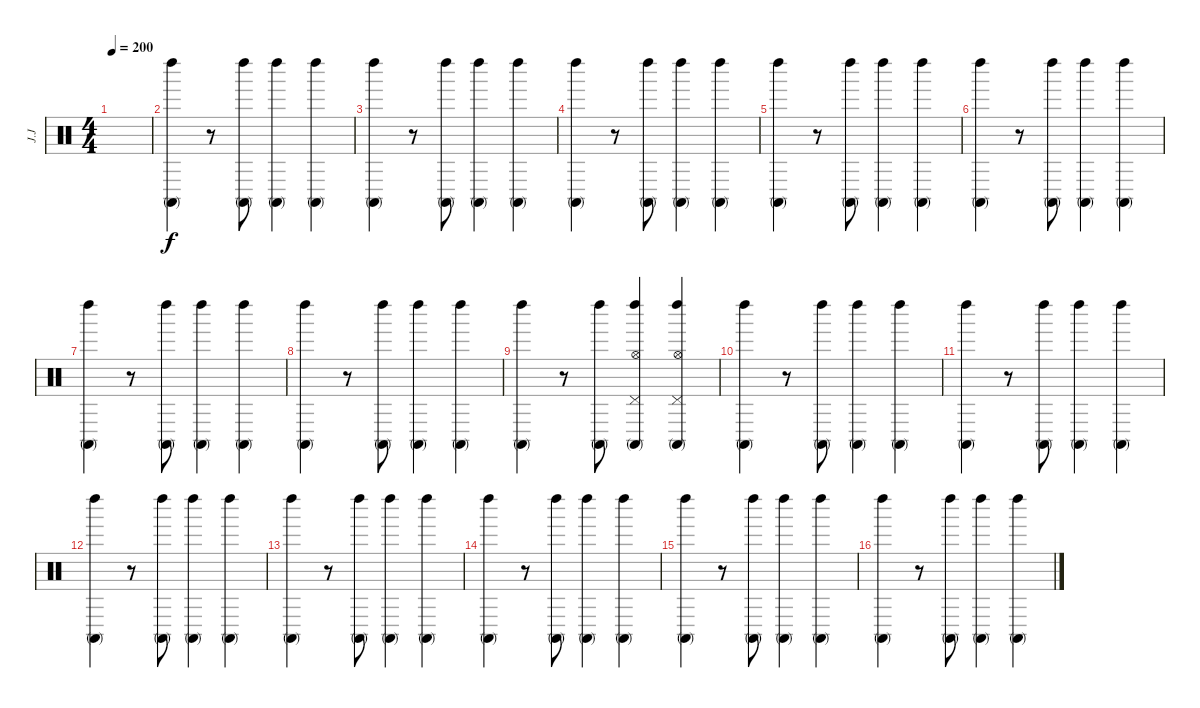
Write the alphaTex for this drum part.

\track ("J.J" "J.J") {instrument percussion}
\staff {score}
\articulation defaults
\ts (4 4)
\tempo 200
\clef neutral
\ks c
|
("Conga high (mute)" "Left Maraca (hit)").4 r.8 ("Conga high (mute)" "Left Maraca (hit)").8 ("Conga high (mute)" "Left Maraca (hit)").4 ("Conga high (mute)" "Left Maraca (hit)").4 |
("Conga high (mute)" "Left Maraca (hit)").4 r.8 ("Conga high (mute)" "Left Maraca (hit)").8 ("Conga high (mute)" "Left Maraca (hit)").4 ("Conga high (mute)" "Left Maraca (hit)").4 |
("Conga high (mute)" "Left Maraca (hit)").4 r.8 ("Conga high (mute)" "Left Maraca (hit)").8 ("Conga high (mute)" "Left Maraca (hit)").4 ("Conga high (mute)" "Left Maraca (hit)").4 |
("Conga high (mute)" "Left Maraca (hit)").4 r.8 ("Conga high (mute)" "Left Maraca (hit)").8 ("Conga high (mute)" "Left Maraca (hit)").4 ("Conga high (mute)" "Left Maraca (hit)").4 |
("Conga high (mute)" "Left Maraca (hit)").4 r.8 ("Conga high (mute)" "Left Maraca (hit)").8 ("Conga high (mute)" "Left Maraca (hit)").4 ("Conga high (mute)" "Left Maraca (hit)").4 |
("Conga high (mute)" "Left Maraca (hit)").4 r.8 ("Conga high (mute)" "Left Maraca (hit)").8 ("Conga high (mute)" "Left Maraca (hit)").4 ("Conga high (mute)" "Left Maraca (hit)").4 |
("Conga high (mute)" "Left Maraca (hit)").4 r.8 ("Conga high (mute)" "Left Maraca (hit)").8 ("Conga high (mute)" "Left Maraca (hit)").4 ("Conga high (mute)" "Left Maraca (hit)").4 |
("Conga high (mute)" "Left Maraca (hit)").4 r.8 ("Conga high (mute)" "Left Maraca (hit)").8 ("Conga high (mute)" "Left Maraca (hit)" "Hi-Hat (open)" "Pedal Hi-Hat (hit)").4 ("Conga high (mute)" "Left Maraca (hit)" "Hi-Hat (open)" "Pedal Hi-Hat (hit)").4 |
("Conga high (mute)" "Left Maraca (hit)").4 r.8 ("Conga high (mute)" "Left Maraca (hit)").8 ("Conga high (mute)" "Left Maraca (hit)").4 ("Conga high (mute)" "Left Maraca (hit)").4 |
("Conga high (mute)" "Left Maraca (hit)").4 r.8 ("Conga high (mute)" "Left Maraca (hit)").8 ("Conga high (mute)" "Left Maraca (hit)").4 ("Conga high (mute)" "Left Maraca (hit)").4 |
("Conga high (mute)" "Left Maraca (hit)").4 r.8 ("Conga high (mute)" "Left Maraca (hit)").8 ("Conga high (mute)" "Left Maraca (hit)").4 ("Conga high (mute)" "Left Maraca (hit)").4 |
("Conga high (mute)" "Left Maraca (hit)").4 r.8 ("Conga high (mute)" "Left Maraca (hit)").8 ("Conga high (mute)" "Left Maraca (hit)").4 ("Conga high (mute)" "Left Maraca (hit)").4 |
("Conga high (mute)" "Left Maraca (hit)").4 r.8 ("Conga high (mute)" "Left Maraca (hit)").8 ("Conga high (mute)" "Left Maraca (hit)").4 ("Conga high (mute)" "Left Maraca (hit)").4 |
("Conga high (mute)" "Left Maraca (hit)").4 r.8 ("Conga high (mute)" "Left Maraca (hit)").8 ("Conga high (mute)" "Left Maraca (hit)").4 ("Conga high (mute)" "Left Maraca (hit)").4 |
("Conga high (mute)" "Left Maraca (hit)").4 r.8 ("Conga high (mute)" "Left Maraca (hit)").8 ("Conga high (mute)" "Left Maraca (hit)").4 ("Conga high (mute)" "Left Maraca (hit)").4
